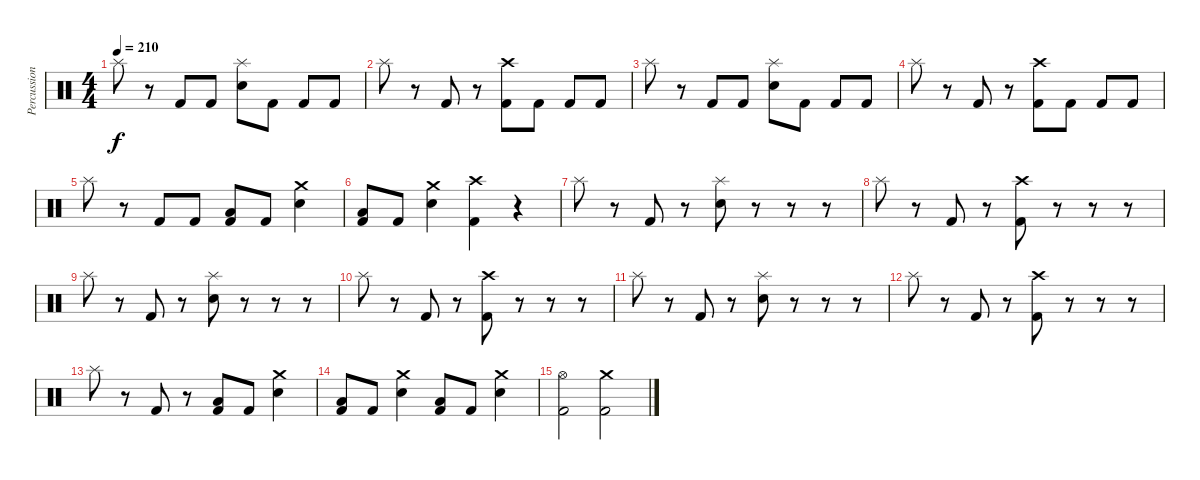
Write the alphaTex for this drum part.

\track ("Percussion" "Percussion") {instrument percussion}
\staff {score}
\articulation defaults
\ts (4 4)
\tempo 210
\clef neutral
\ks c "Splash (hit)".8{dy f}
r.8 "Kick (hit) 2".8 "Kick (hit) 2".8 ("Splash (hit)" "Snare (hit) 2").8 "Kick (hit) 2".8 "Kick (hit) 2".8 "Kick (hit) 2".8 |
"Splash (hit)".8 r.8 "Kick (hit) 2".8 r.8 ("Crash high (hit)" "Kick (hit) 2").8 "Kick (hit) 2".8 "Kick (hit) 2".8 "Kick (hit) 2".8 |
"Splash (hit)".8 r.8 "Kick (hit) 2".8 "Kick (hit) 2".8 ("Splash (hit)" "Snare (hit) 2").8 "Kick (hit) 2".8 "Kick (hit) 2".8 "Kick (hit) 2".8 |
"Splash (hit)".8 r.8 "Kick (hit) 2".8 r.8 ("Crash high (hit)" "Kick (hit) 2").8 "Kick (hit) 2".8 "Kick (hit) 2".8 "Kick (hit) 2".8 |
"Splash (hit)".8 r.8 "Kick (hit) 2".8 "Kick (hit) 2".8 ("Low Floor Tom (hit)" "Kick (hit) 2").8 "Kick (hit) 2".8 ("Crash medium (hit)" "Snare (hit) 2").4 |
("Low Floor Tom (hit)" "Kick (hit) 2").8 "Kick (hit) 2".8 ("Crash medium (hit)" "Snare (hit) 2").4 ("Crash high (hit)" "Kick (hit) 2").4 r.4 |
"Splash (hit)".8 r.8 "Kick (hit) 2".8 r.8 ("Splash (hit)" "Snare (hit) 2").8 r.8 r.8 r.8 |
"Splash (hit)".8 r.8 "Kick (hit) 2".8 r.8 ("Crash high (hit)" "Kick (hit) 2").8 r.8 r.8 r.8 |
"Splash (hit)".8 r.8 "Kick (hit) 2".8 r.8 ("Splash (hit)" "Snare (hit) 2").8 r.8 r.8 r.8 |
"Splash (hit)".8 r.8 "Kick (hit) 2".8 r.8 ("Crash high (hit)" "Kick (hit) 2").8 r.8 r.8 r.8 |
"Splash (hit)".8 r.8 "Kick (hit) 2".8 r.8 ("Splash (hit)" "Snare (hit) 2").8 r.8 r.8 r.8 |
"Splash (hit)".8 r.8 "Kick (hit) 2".8 r.8 ("Crash high (hit)" "Kick (hit) 2").8 r.8 r.8 r.8 |
"Splash (hit)".8 r.8 "Kick (hit) 2".8 r.8 ("Low Floor Tom (hit)" "Kick (hit) 2").8 "Kick (hit) 2".8 ("Crash medium (hit)" "Snare (hit) 2").4 |
("Low Floor Tom (hit)" "Kick (hit) 2").8 "Kick (hit) 2".8 ("Crash medium (hit)" "Snare (hit) 2").4 ("Low Floor Tom (hit)" "Kick (hit) 2").8 "Kick (hit) 2".8 ("Crash medium (hit)" "Snare (hit) 2").4 |
("Hi-Hat (open)" "Kick (hit) 2").2 ("Crash medium (hit)" "Kick (hit) 2").2
